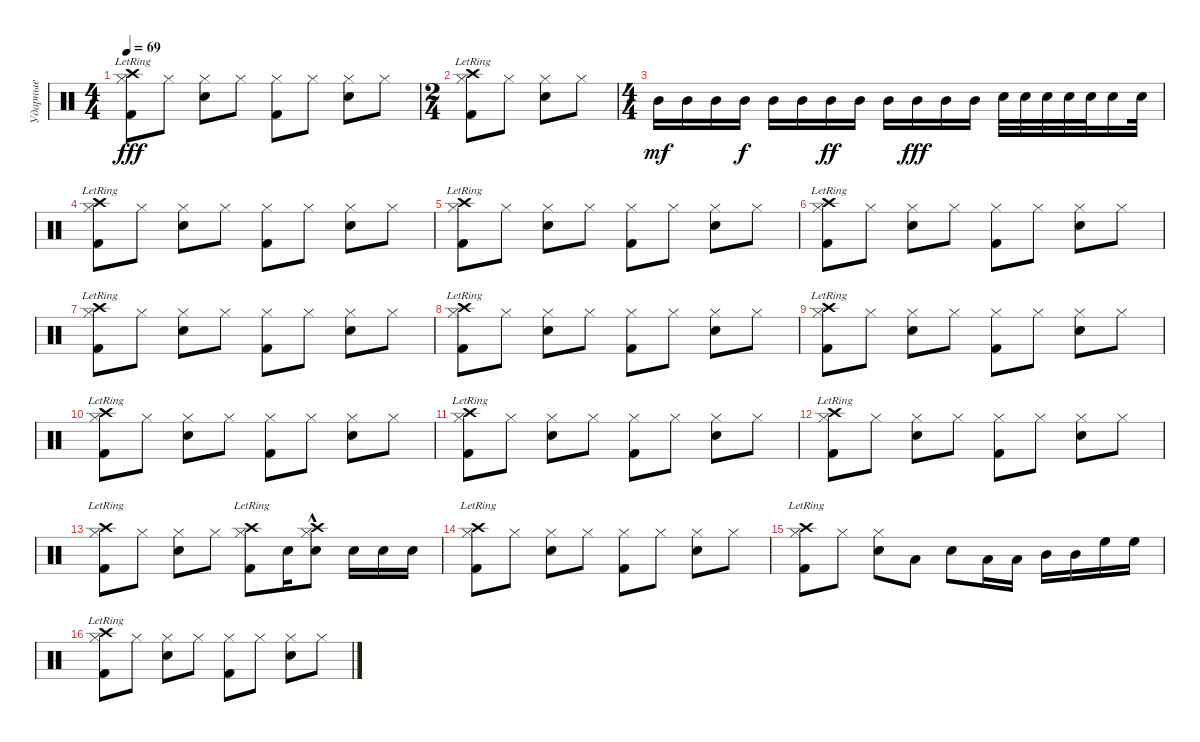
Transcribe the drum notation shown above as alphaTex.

\track ("Ударные" "Ударные") {instrument percussion}
\staff {score}
\articulation defaults
\ts (4 4)
\tempo 69
\clef neutral
\ks c
("Hi-Hat (closed)" "Kick (hit) 2" "Crash high (hit)"{lr}).8{dy fff} "Hi-Hat (closed)".8 ("Hi-Hat (closed)" "Snare (hit) 2").8 "Hi-Hat (closed)".8 ("Hi-Hat (closed)" "Kick (hit) 2").8 "Hi-Hat (closed)".8 ("Hi-Hat (closed)" "Snare (hit) 2").8 "Hi-Hat (closed)".8 |
\ts (2 4)
("Hi-Hat (closed)" "Kick (hit) 2" "Crash high (hit)"{lr}).8 "Hi-Hat (closed)".8 ("Hi-Hat (closed)" "Snare (hit) 2").8 "Hi-Hat (closed)".8 |
\ts (4 4)
"Mid Tom (hit)".16{dy mf} "Mid Tom (hit)".16 "Mid Tom (hit)".16 "Mid Tom (hit)".16{dy f} "Mid Tom (hit)".16 "Mid Tom (hit)".16 "Mid Tom (hit)".16{dy ff} "Mid Tom (hit)".16 "Mid Tom (hit)".16 "Mid Tom (hit)".16{dy fff} "Mid Tom (hit)".16 "Mid Tom (hit)".16 "Snare (hit) 2".32 "Snare (hit) 2".32 "Snare (hit) 2".32 "Snare (hit) 2".32 "Snare (hit) 2".32 "Snare (hit) 2".16 "Snare (hit) 2".32 |
("Hi-Hat (closed)" "Kick (hit) 2" "Crash high (hit)"{lr}).8 "Hi-Hat (closed)".8 ("Hi-Hat (closed)" "Snare (hit) 2").8 "Hi-Hat (closed)".8 ("Hi-Hat (closed)" "Kick (hit) 2").8 "Hi-Hat (closed)".8 ("Hi-Hat (closed)" "Snare (hit) 2").8 "Hi-Hat (closed)".8 |
("Hi-Hat (closed)" "Kick (hit) 2" "Crash high (hit)"{lr}).8 "Hi-Hat (closed)".8 ("Hi-Hat (closed)" "Snare (hit) 2").8 "Hi-Hat (closed)".8 ("Hi-Hat (closed)" "Kick (hit) 2").8 "Hi-Hat (closed)".8 ("Hi-Hat (closed)" "Snare (hit) 2").8 "Hi-Hat (closed)".8 |
("Hi-Hat (closed)" "Kick (hit) 2" "Crash high (hit)"{lr}).8 "Hi-Hat (closed)".8 ("Hi-Hat (closed)" "Snare (hit) 2").8 "Hi-Hat (closed)".8 ("Hi-Hat (closed)" "Kick (hit) 2").8 "Hi-Hat (closed)".8 ("Hi-Hat (closed)" "Snare (hit) 2").8 "Hi-Hat (closed)".8 |
("Hi-Hat (closed)" "Kick (hit) 2" "Crash high (hit)"{lr}).8 "Hi-Hat (closed)".8 ("Hi-Hat (closed)" "Snare (hit) 2").8 "Hi-Hat (closed)".8 ("Hi-Hat (closed)" "Kick (hit) 2").8 "Hi-Hat (closed)".8 ("Hi-Hat (closed)" "Snare (hit) 2").8 "Hi-Hat (closed)".8 |
("Hi-Hat (closed)" "Kick (hit) 2" "Crash high (hit)"{lr}).8 "Hi-Hat (closed)".8 ("Hi-Hat (closed)" "Snare (hit) 2").8 "Hi-Hat (closed)".8 ("Hi-Hat (closed)" "Kick (hit) 2").8 "Hi-Hat (closed)".8 ("Hi-Hat (closed)" "Snare (hit) 2").8 "Hi-Hat (closed)".8 |
("Hi-Hat (closed)" "Kick (hit) 2" "Crash high (hit)"{lr}).8 "Hi-Hat (closed)".8 ("Hi-Hat (closed)" "Snare (hit) 2").8 "Hi-Hat (closed)".8 ("Hi-Hat (closed)" "Kick (hit) 2").8 "Hi-Hat (closed)".8 ("Hi-Hat (closed)" "Snare (hit) 2").8 "Hi-Hat (closed)".8 |
("Hi-Hat (closed)" "Kick (hit) 2" "Crash high (hit)"{lr}).8 "Hi-Hat (closed)".8 ("Hi-Hat (closed)" "Snare (hit) 2").8 "Hi-Hat (closed)".8 ("Hi-Hat (closed)" "Kick (hit) 2").8 "Hi-Hat (closed)".8 ("Hi-Hat (closed)" "Snare (hit) 2").8 "Hi-Hat (closed)".8 |
("Hi-Hat (closed)" "Kick (hit) 2" "Crash high (hit)"{lr}).8 "Hi-Hat (closed)".8 ("Hi-Hat (closed)" "Snare (hit) 2").8 "Hi-Hat (closed)".8 ("Hi-Hat (closed)" "Kick (hit) 2").8 "Hi-Hat (closed)".8 ("Hi-Hat (closed)" "Snare (hit) 2").8 "Hi-Hat (closed)".8 |
("Hi-Hat (closed)" "Kick (hit) 2" "Crash high (hit)"{lr}).8 "Hi-Hat (closed)".8 ("Hi-Hat (closed)" "Snare (hit) 2").8 "Hi-Hat (closed)".8 ("Hi-Hat (closed)" "Kick (hit) 2").8 "Hi-Hat (closed)".8 ("Hi-Hat (closed)" "Snare (hit) 2").8 "Hi-Hat (closed)".8 |
("Hi-Hat (closed)" "Kick (hit) 2" "Crash high (hit)"{lr}).8 "Hi-Hat (closed)".8 ("Hi-Hat (closed)" "Snare (hit) 2").8 "Hi-Hat (closed)".8 ("Hi-Hat (closed)" "Kick (hit) 2" "Crash high (hit)"{lr}).8 "Snare (hit) 2".16 ("Hi-Hat (closed)" "Snare (hit) 2" "Crash high (hit)"{hac}).8 "Snare (hit) 2".16 "Snare (hit) 2".16 "Snare (hit) 2".16 |
("Hi-Hat (closed)" "Kick (hit) 2" "Crash high (hit)"{lr}).8 "Hi-Hat (closed)".8 ("Hi-Hat (closed)" "Snare (hit) 2").8 "Hi-Hat (closed)".8 ("Hi-Hat (closed)" "Kick (hit) 2").8 "Hi-Hat (closed)".8 ("Hi-Hat (closed)" "Snare (hit) 2").8 "Hi-Hat (closed)".8 |
("Hi-Hat (closed)" "Kick (hit) 2" "Crash high (hit)"{lr}).8 "Hi-Hat (closed)".8 ("Hi-Hat (closed)" "Snare (hit) 2").8 "Low Floor Tom (hit)".8 "Snare (hit) 2".8 "Low Tom (hit)".16 "Low Tom (hit)".16 "Mid Tom (hit)".16 "Mid Tom (hit)".16 "High Floor Tom (hit)".16 "High Floor Tom (hit)".16 |
("Hi-Hat (closed)" "Kick (hit) 2" "Crash high (hit)"{lr}).8 "Hi-Hat (closed)".8 ("Hi-Hat (closed)" "Snare (hit) 2").8 "Hi-Hat (closed)".8 ("Hi-Hat (closed)" "Kick (hit) 2").8 "Hi-Hat (closed)".8 ("Hi-Hat (closed)" "Snare (hit) 2").8 "Hi-Hat (closed)".8
